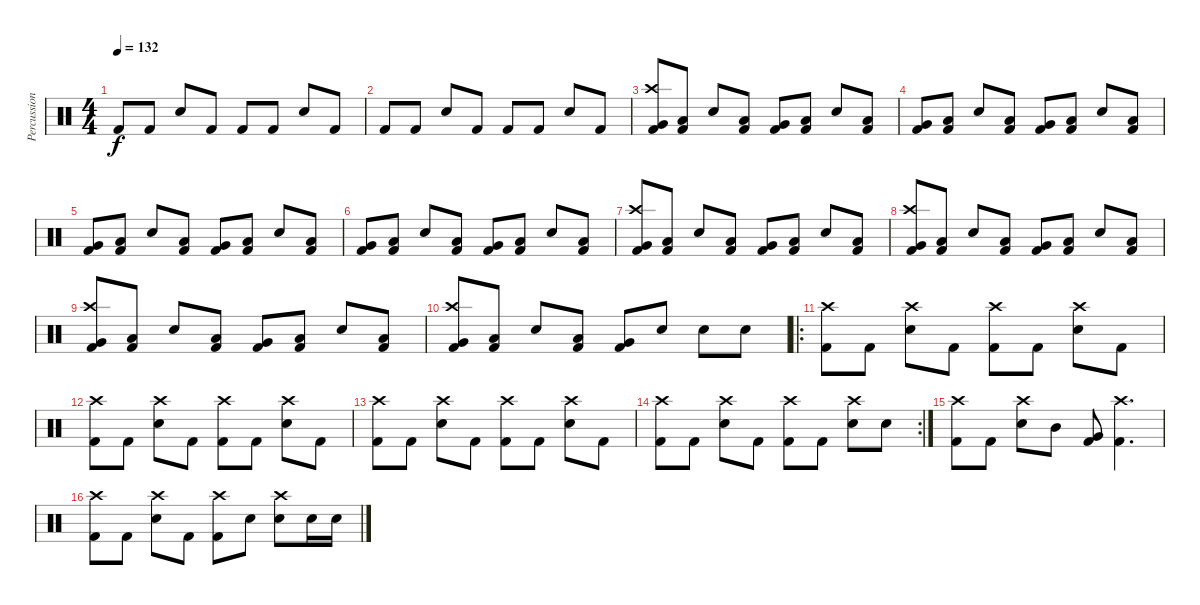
\track ("Percussion" "Percussion") {instrument percussion}
\staff {score}
\articulation defaults
\ts (4 4)
\tempo 132
\clef neutral
\ks c "Kick (hit) 2".8{dy f} "Kick (hit) 2".8 "Electric Snare (hit)".8 "Kick (hit) 2".8 "Kick (hit) 2".8 "Kick (hit) 2".8 "Electric Snare (hit)".8 "Kick (hit) 2".8
|
"Kick (hit) 2".8 "Kick (hit) 2".8 "Electric Snare (hit)".8 "Kick (hit) 2".8 "Kick (hit) 2".8 "Kick (hit) 2".8 "Electric Snare (hit)".8 "Kick (hit) 2".8 |
("Crash high (hit)" "Very Low Tom (hit)" "Kick (hit) 2").8 ("Low Floor Tom (hit)" "Kick (hit) 2").8 "Electric Snare (hit)".8 ("Low Floor Tom (hit)" "Kick (hit) 2").8 ("Very Low Tom (hit)" "Kick (hit) 2").8 ("Low Floor Tom (hit)" "Kick (hit) 2").8 "Electric Snare (hit)".8 ("Low Floor Tom (hit)" "Kick (hit) 2").8 |
("Very Low Tom (hit)" "Kick (hit) 2").8 ("Low Floor Tom (hit)" "Kick (hit) 2").8 "Electric Snare (hit)".8 ("Low Floor Tom (hit)" "Kick (hit) 2").8 ("Very Low Tom (hit)" "Kick (hit) 2").8 ("Low Floor Tom (hit)" "Kick (hit) 2").8 "Electric Snare (hit)".8 ("Low Floor Tom (hit)" "Kick (hit) 2").8 |
("Very Low Tom (hit)" "Kick (hit) 2").8 ("Low Floor Tom (hit)" "Kick (hit) 2").8 "Electric Snare (hit)".8 ("Low Floor Tom (hit)" "Kick (hit) 2").8 ("Very Low Tom (hit)" "Kick (hit) 2").8 ("Low Floor Tom (hit)" "Kick (hit) 2").8 "Electric Snare (hit)".8 ("Low Floor Tom (hit)" "Kick (hit) 2").8 |
("Very Low Tom (hit)" "Kick (hit) 2").8 ("Low Floor Tom (hit)" "Kick (hit) 2").8 "Electric Snare (hit)".8 ("Low Floor Tom (hit)" "Kick (hit) 2").8 ("Very Low Tom (hit)" "Kick (hit) 2").8 ("Low Floor Tom (hit)" "Kick (hit) 2").8 "Electric Snare (hit)".8 ("Low Floor Tom (hit)" "Kick (hit) 2").8 |
("Crash high (hit)" "Very Low Tom (hit)" "Kick (hit) 2").8 ("Low Floor Tom (hit)" "Kick (hit) 2").8 "Electric Snare (hit)".8 ("Low Floor Tom (hit)" "Kick (hit) 2").8 ("Very Low Tom (hit)" "Kick (hit) 2").8 ("Low Floor Tom (hit)" "Kick (hit) 2").8 "Electric Snare (hit)".8 ("Low Floor Tom (hit)" "Kick (hit) 2").8 |
("Crash high (hit)" "Very Low Tom (hit)" "Kick (hit) 2").8 ("Low Floor Tom (hit)" "Kick (hit) 2").8 "Electric Snare (hit)".8 ("Low Floor Tom (hit)" "Kick (hit) 2").8 ("Very Low Tom (hit)" "Kick (hit) 2").8 ("Low Floor Tom (hit)" "Kick (hit) 2").8 "Electric Snare (hit)".8 ("Low Floor Tom (hit)" "Kick (hit) 2").8 |
("Crash high (hit)" "Very Low Tom (hit)" "Kick (hit) 2").8 ("Low Floor Tom (hit)" "Kick (hit) 2").8 "Electric Snare (hit)".8 ("Low Floor Tom (hit)" "Kick (hit) 2").8 ("Very Low Tom (hit)" "Kick (hit) 2").8 ("Low Floor Tom (hit)" "Kick (hit) 2").8 "Electric Snare (hit)".8 ("Low Floor Tom (hit)" "Kick (hit) 2").8 |
("Crash high (hit)" "Very Low Tom (hit)" "Kick (hit) 2").8 ("Low Floor Tom (hit)" "Kick (hit) 2").8 "Electric Snare (hit)".8 ("Low Floor Tom (hit)" "Kick (hit) 2").8 ("Very Low Tom (hit)" "Kick (hit) 2").8 "Electric Snare (hit)".8 "Electric Snare (hit)".8 "Electric Snare (hit)".8 |
\ro
("Crash high (hit)" "Kick (hit) 2").8 "Kick (hit) 2".8 ("Crash high (hit)" "Electric Snare (hit)").8 "Kick (hit) 2".8 ("Crash high (hit)" "Kick (hit) 2").8 "Kick (hit) 2".8 ("Crash high (hit)" "Electric Snare (hit)").8 "Kick (hit) 2".8 |
("Crash high (hit)" "Kick (hit) 2").8 "Kick (hit) 2".8 ("Crash high (hit)" "Electric Snare (hit)").8 "Kick (hit) 2".8 ("Crash high (hit)" "Kick (hit) 2").8 "Kick (hit) 2".8 ("Crash high (hit)" "Electric Snare (hit)").8 "Kick (hit) 2".8 |
("Crash high (hit)" "Kick (hit) 2").8 "Kick (hit) 2".8 ("Crash high (hit)" "Electric Snare (hit)").8 "Kick (hit) 2".8 ("Crash high (hit)" "Kick (hit) 2").8 "Kick (hit) 2".8 ("Crash high (hit)" "Electric Snare (hit)").8 "Kick (hit) 2".8 |
\rc 2
("Crash high (hit)" "Kick (hit) 2").8 "Kick (hit) 2".8 ("Crash high (hit)" "Electric Snare (hit)").8 "Kick (hit) 2".8 ("Crash high (hit)" "Kick (hit) 2").8 "Kick (hit) 2".8 ("Crash high (hit)" "Electric Snare (hit)").8 "Electric Snare (hit)".8 |
("Crash high (hit)" "Kick (hit) 2").8 "Kick (hit) 2".8 ("Crash high (hit)" "Electric Snare (hit)").8 "Mid Tom (hit)".8 ("Very Low Tom (hit)" "Kick (hit) 2").8 ("Crash high (hit)" "Kick (hit) 2").4{d} |
("Crash high (hit)" "Kick (hit) 2").8 "Kick (hit) 2".8 ("Crash high (hit)" "Electric Snare (hit)").8 "Kick (hit) 2".8 ("Crash high (hit)" "Kick (hit) 2").8 "Electric Snare (hit)".8 ("Crash high (hit)" "Electric Snare (hit)").8 "Electric Snare (hit)".16 "Electric Snare (hit)".16
